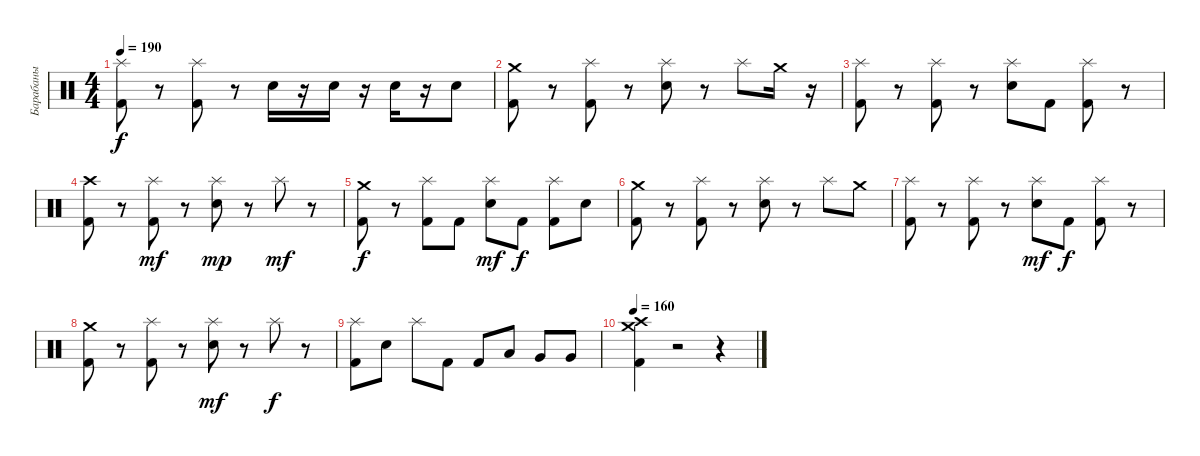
\track ("Барабаны" "Барабаны") {instrument percussion}
\staff {score}
\articulation defaults
\ts (4 4)
\tempo 190
\clef neutral
\ks c
("Splash (hit)" "Kick (hit) 2").8{dy f} r.8 ("Splash (hit)" "Kick (hit) 2").8 r.8 "Electric Snare (hit)".16 r.16 "Electric Snare (hit)".16 r.16 "Electric Snare (hit)".16 r.16 "Electric Snare (hit)".8 |
("Crash medium (hit)" "Kick (hit) 2").8 r.8 ("Splash (hit)" "Kick (hit) 2").8 r.8 ("Splash (hit)" "Electric Snare (hit)").8 r.8 "Splash (hit)".8 "Crash medium (hit)".16 r.16 |
("Splash (hit)" "Kick (hit) 2").8 r.8 ("Splash (hit)" "Kick (hit) 2").8 r.8 ("Splash (hit)" "Electric Snare (hit)").8 "Kick (hit) 2".8 ("Splash (hit)" "Kick (hit) 2").8 r.8 |
("Crash high (hit)" "Kick (hit) 2").8 r.8 ("Splash (hit)" "Kick (hit) 2").8{dy mf} r.8 ("Splash (hit)" "Electric Snare (hit)").8{dy mp} r.8 "Splash (hit)".8{dy mf} r.8 |
("Crash medium (hit)" "Kick (hit) 2").8{dy f} r.8 ("Splash (hit)" "Kick (hit) 2").8 "Kick (hit) 2".8 ("Splash (hit)" "Electric Snare (hit)").8{dy mf} "Kick (hit) 2".8{dy f} ("Splash (hit)" "Kick (hit) 2").8 "Electric Snare (hit)".8 |
("Crash medium (hit)" "Kick (hit) 2").8 r.8 ("Splash (hit)" "Kick (hit) 2").8 r.8 ("Splash (hit)" "Electric Snare (hit)").8 r.8 "Splash (hit)".8 "Crash medium (hit)".8 |
("Splash (hit)" "Kick (hit) 2").8 r.8 ("Splash (hit)" "Kick (hit) 2").8 r.8 ("Splash (hit)" "Electric Snare (hit)").8{dy mf} "Kick (hit) 2".8{dy f} ("Splash (hit)" "Kick (hit) 2").8 r.8 |
("Crash medium (hit)" "Kick (hit) 2").8 r.8 ("Splash (hit)" "Kick (hit) 2").8 r.8 ("Splash (hit)" "Electric Snare (hit)").8{dy mf} r.8 "Splash (hit)".8{dy f} r.8 |
("Splash (hit)" "Kick (hit) 2").8 "Electric Snare (hit)".8 "Splash (hit)".8 "Kick (hit) 2".8 "Kick (hit) 2".8 "Low Tom (hit)".8 "Very Low Tom (hit)".8 "Very Low Tom (hit)".8 |
\tempo 160
("Crash medium (hit)" "Crash high (hit)" "Kick (hit) 2").4 r.2 r.4
